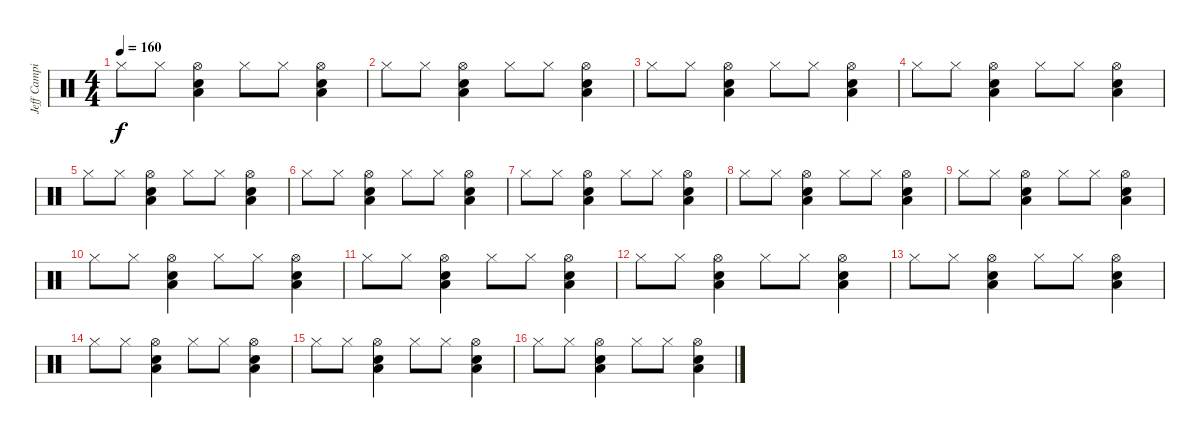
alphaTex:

\track ("Jeff Campitelli" "Jeff Campi") {instrument percussion}
\staff {score}
\articulation defaults
\ts (4 4)
\tempo 160
\clef neutral
\ks c "Hi-Hat (closed)".8{dy f} "Hi-Hat (closed)".8
("Low Floor Tom (hit)" "Snare (hit) 2" "Hi-Hat (open)").4 "Hi-Hat (closed)".8 "Hi-Hat (closed)".8 ("Low Floor Tom (hit)" "Snare (hit) 2" "Hi-Hat (open)").4 |
"Hi-Hat (closed)".8 "Hi-Hat (closed)".8 ("Low Floor Tom (hit)" "Snare (hit) 2" "Hi-Hat (open)").4 "Hi-Hat (closed)".8 "Hi-Hat (closed)".8 ("Low Floor Tom (hit)" "Snare (hit) 2" "Hi-Hat (open)").4 |
"Hi-Hat (closed)".8 "Hi-Hat (closed)".8 ("Low Floor Tom (hit)" "Snare (hit) 2" "Hi-Hat (open)").4 "Hi-Hat (closed)".8 "Hi-Hat (closed)".8 ("Low Floor Tom (hit)" "Snare (hit) 2" "Hi-Hat (open)").4 |
"Hi-Hat (closed)".8 "Hi-Hat (closed)".8 ("Low Floor Tom (hit)" "Snare (hit) 2" "Hi-Hat (open)").4 "Hi-Hat (closed)".8 "Hi-Hat (closed)".8 ("Low Floor Tom (hit)" "Snare (hit) 2" "Hi-Hat (open)").4 |
"Hi-Hat (closed)".8 "Hi-Hat (closed)".8 ("Low Floor Tom (hit)" "Snare (hit) 2" "Hi-Hat (open)").4 "Hi-Hat (closed)".8 "Hi-Hat (closed)".8 ("Low Floor Tom (hit)" "Snare (hit) 2" "Hi-Hat (open)").4 |
"Hi-Hat (closed)".8 "Hi-Hat (closed)".8 ("Low Floor Tom (hit)" "Snare (hit) 2" "Hi-Hat (open)").4 "Hi-Hat (closed)".8 "Hi-Hat (closed)".8 ("Low Floor Tom (hit)" "Snare (hit) 2" "Hi-Hat (open)").4 |
"Hi-Hat (closed)".8 "Hi-Hat (closed)".8 ("Low Floor Tom (hit)" "Snare (hit) 2" "Hi-Hat (open)").4 "Hi-Hat (closed)".8 "Hi-Hat (closed)".8 ("Low Floor Tom (hit)" "Snare (hit) 2" "Hi-Hat (open)").4 |
"Hi-Hat (closed)".8 "Hi-Hat (closed)".8 ("Low Floor Tom (hit)" "Snare (hit) 2" "Hi-Hat (open)").4 "Hi-Hat (closed)".8 "Hi-Hat (closed)".8 ("Low Floor Tom (hit)" "Snare (hit) 2" "Hi-Hat (open)").4 |
"Hi-Hat (closed)".8 "Hi-Hat (closed)".8 ("Low Floor Tom (hit)" "Snare (hit) 2" "Hi-Hat (open)").4 "Hi-Hat (closed)".8 "Hi-Hat (closed)".8 ("Low Floor Tom (hit)" "Snare (hit) 2" "Hi-Hat (open)").4 |
"Hi-Hat (closed)".8 "Hi-Hat (closed)".8 ("Low Floor Tom (hit)" "Snare (hit) 2" "Hi-Hat (open)").4 "Hi-Hat (closed)".8 "Hi-Hat (closed)".8 ("Low Floor Tom (hit)" "Snare (hit) 2" "Hi-Hat (open)").4 |
"Hi-Hat (closed)".8 "Hi-Hat (closed)".8 ("Low Floor Tom (hit)" "Snare (hit) 2" "Hi-Hat (open)").4 "Hi-Hat (closed)".8 "Hi-Hat (closed)".8 ("Low Floor Tom (hit)" "Snare (hit) 2" "Hi-Hat (open)").4 |
"Hi-Hat (closed)".8 "Hi-Hat (closed)".8 ("Low Floor Tom (hit)" "Snare (hit) 2" "Hi-Hat (open)").4 "Hi-Hat (closed)".8 "Hi-Hat (closed)".8 ("Low Floor Tom (hit)" "Snare (hit) 2" "Hi-Hat (open)").4 |
"Hi-Hat (closed)".8 "Hi-Hat (closed)".8 ("Low Floor Tom (hit)" "Snare (hit) 2" "Hi-Hat (open)").4 "Hi-Hat (closed)".8 "Hi-Hat (closed)".8 ("Low Floor Tom (hit)" "Snare (hit) 2" "Hi-Hat (open)").4 |
"Hi-Hat (closed)".8 "Hi-Hat (closed)".8 ("Low Floor Tom (hit)" "Snare (hit) 2" "Hi-Hat (open)").4 "Hi-Hat (closed)".8 "Hi-Hat (closed)".8 ("Low Floor Tom (hit)" "Snare (hit) 2" "Hi-Hat (open)").4 |
"Hi-Hat (closed)".8 "Hi-Hat (closed)".8 ("Low Floor Tom (hit)" "Snare (hit) 2" "Hi-Hat (open)").4 "Hi-Hat (closed)".8 "Hi-Hat (closed)".8 ("Low Floor Tom (hit)" "Snare (hit) 2" "Hi-Hat (open)").4 |
"Hi-Hat (closed)".8 "Hi-Hat (closed)".8 ("Low Floor Tom (hit)" "Snare (hit) 2" "Hi-Hat (open)").4 "Hi-Hat (closed)".8 "Hi-Hat (closed)".8 ("Low Floor Tom (hit)" "Snare (hit) 2" "Hi-Hat (open)").4
